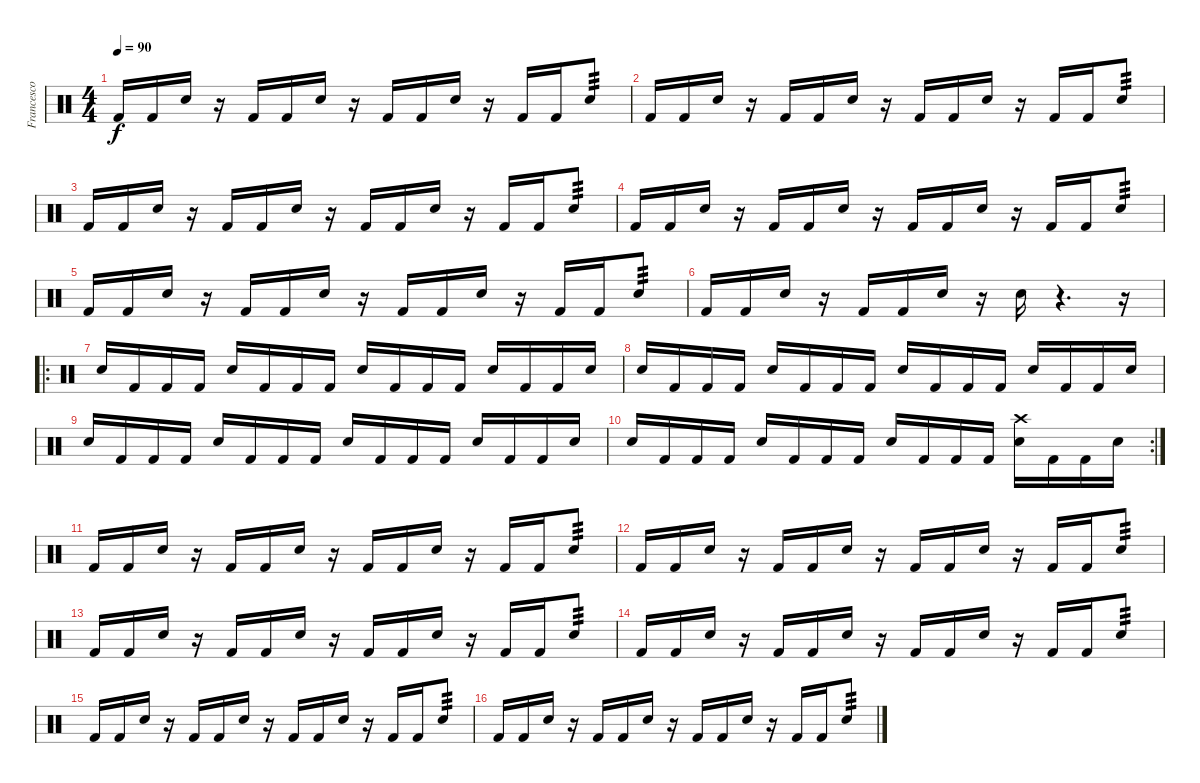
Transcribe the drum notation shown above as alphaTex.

\track ("Francesco -Franz- Valente" "Francesco ") {instrument percussion}
\staff {score}
\articulation defaults
\ts (4 4)
\tempo 90
\clef neutral
\ks c "Kick (hit) 2".16{dy f} "Kick (hit) 2".16 "Electric Snare (hit)".16
r.16 "Kick (hit) 2".16 "Kick (hit) 2".16 "Electric Snare (hit)".16 r.16 "Kick (hit) 2".16 "Kick (hit) 2".16 "Electric Snare (hit)".16 r.16 "Kick (hit) 2".16 "Kick (hit) 2".16 "Electric Snare (hit)".8{tp 3} |
"Kick (hit) 2".16 "Kick (hit) 2".16 "Electric Snare (hit)".16 r.16 "Kick (hit) 2".16 "Kick (hit) 2".16 "Electric Snare (hit)".16 r.16 "Kick (hit) 2".16 "Kick (hit) 2".16 "Electric Snare (hit)".16 r.16 "Kick (hit) 2".16 "Kick (hit) 2".16 "Electric Snare (hit)".8{tp 3} |
"Kick (hit) 2".16 "Kick (hit) 2".16 "Electric Snare (hit)".16 r.16 "Kick (hit) 2".16 "Kick (hit) 2".16 "Electric Snare (hit)".16 r.16 "Kick (hit) 2".16 "Kick (hit) 2".16 "Electric Snare (hit)".16 r.16 "Kick (hit) 2".16 "Kick (hit) 2".16 "Electric Snare (hit)".8{tp 3} |
"Kick (hit) 2".16 "Kick (hit) 2".16 "Electric Snare (hit)".16 r.16 "Kick (hit) 2".16 "Kick (hit) 2".16 "Electric Snare (hit)".16 r.16 "Kick (hit) 2".16 "Kick (hit) 2".16 "Electric Snare (hit)".16 r.16 "Kick (hit) 2".16 "Kick (hit) 2".16 "Electric Snare (hit)".8{tp 3} |
"Kick (hit) 2".16 "Kick (hit) 2".16 "Electric Snare (hit)".16 r.16 "Kick (hit) 2".16 "Kick (hit) 2".16 "Electric Snare (hit)".16 r.16 "Kick (hit) 2".16 "Kick (hit) 2".16 "Electric Snare (hit)".16 r.16 "Kick (hit) 2".16 "Kick (hit) 2".16 "Electric Snare (hit)".8{tp 3} |
"Kick (hit) 2".16 "Kick (hit) 2".16 "Electric Snare (hit)".16 r.16 "Kick (hit) 2".16 "Kick (hit) 2".16 "Electric Snare (hit)".16 r.16 "Electric Snare (hit)".16 r.4{d} r.16 |
\ro "Snare (hit) 2".16 "Kick (hit) 2".16 "Kick (hit) 2".16 "Kick (hit) 2".16 "Snare (hit) 2".16 "Kick (hit) 2".16 "Kick (hit) 2".16 "Kick (hit) 2".16 "Snare (hit) 2".16 "Kick (hit) 2".16 "Kick (hit) 2".16 "Kick (hit) 2".16 "Snare (hit) 2".16 "Kick (hit) 2".16 "Kick (hit) 2".16 "Snare (hit) 2".16
|
"Snare (hit) 2".16 "Kick (hit) 2".16 "Kick (hit) 2".16 "Kick (hit) 2".16 "Snare (hit) 2".16 "Kick (hit) 2".16 "Kick (hit) 2".16 "Kick (hit) 2".16 "Snare (hit) 2".16 "Kick (hit) 2".16 "Kick (hit) 2".16 "Kick (hit) 2".16 "Snare (hit) 2".16 "Kick (hit) 2".16 "Kick (hit) 2".16 "Snare (hit) 2".16 |
"Snare (hit) 2".16 "Kick (hit) 2".16 "Kick (hit) 2".16 "Kick (hit) 2".16 "Snare (hit) 2".16 "Kick (hit) 2".16 "Kick (hit) 2".16 "Kick (hit) 2".16 "Snare (hit) 2".16 "Kick (hit) 2".16 "Kick (hit) 2".16 "Kick (hit) 2".16 "Snare (hit) 2".16 "Kick (hit) 2".16 "Kick (hit) 2".16 "Snare (hit) 2".16 |
\rc 2 "Snare (hit) 2".16 "Kick (hit) 2".16 "Kick (hit) 2".16 "Kick (hit) 2".16 "Snare (hit) 2".16 "Kick (hit) 2".16 "Kick (hit) 2".16 "Kick (hit) 2".16 "Snare (hit) 2".16 "Kick (hit) 2".16 "Kick (hit) 2".16 "Kick (hit) 2".16
("Crash high (hit)" "Snare (hit) 2").16 "Kick (hit) 2".16 "Kick (hit) 2".16 "Snare (hit) 2".16 |
"Kick (hit) 2".16 "Kick (hit) 2".16 "Electric Snare (hit)".16 r.16 "Kick (hit) 2".16 "Kick (hit) 2".16 "Electric Snare (hit)".16 r.16 "Kick (hit) 2".16 "Kick (hit) 2".16 "Electric Snare (hit)".16 r.16 "Kick (hit) 2".16 "Kick (hit) 2".16 "Electric Snare (hit)".8{tp 3} |
"Kick (hit) 2".16 "Kick (hit) 2".16 "Electric Snare (hit)".16 r.16 "Kick (hit) 2".16 "Kick (hit) 2".16 "Electric Snare (hit)".16 r.16 "Kick (hit) 2".16 "Kick (hit) 2".16 "Electric Snare (hit)".16 r.16 "Kick (hit) 2".16 "Kick (hit) 2".16 "Electric Snare (hit)".8{tp 3} |
"Kick (hit) 2".16 "Kick (hit) 2".16 "Electric Snare (hit)".16 r.16 "Kick (hit) 2".16 "Kick (hit) 2".16 "Electric Snare (hit)".16 r.16 "Kick (hit) 2".16 "Kick (hit) 2".16 "Electric Snare (hit)".16 r.16 "Kick (hit) 2".16 "Kick (hit) 2".16 "Electric Snare (hit)".8{tp 3} |
"Kick (hit) 2".16 "Kick (hit) 2".16 "Electric Snare (hit)".16 r.16 "Kick (hit) 2".16 "Kick (hit) 2".16 "Electric Snare (hit)".16 r.16 "Kick (hit) 2".16 "Kick (hit) 2".16 "Electric Snare (hit)".16 r.16 "Kick (hit) 2".16 "Kick (hit) 2".16 "Electric Snare (hit)".8{tp 3} |
"Kick (hit) 2".16 "Kick (hit) 2".16 "Electric Snare (hit)".16 r.16 "Kick (hit) 2".16 "Kick (hit) 2".16 "Electric Snare (hit)".16 r.16 "Kick (hit) 2".16 "Kick (hit) 2".16 "Electric Snare (hit)".16 r.16 "Kick (hit) 2".16 "Kick (hit) 2".16 "Electric Snare (hit)".8{tp 3} |
"Kick (hit) 2".16 "Kick (hit) 2".16 "Electric Snare (hit)".16 r.16 "Kick (hit) 2".16 "Kick (hit) 2".16 "Electric Snare (hit)".16 r.16 "Kick (hit) 2".16 "Kick (hit) 2".16 "Electric Snare (hit)".16 r.16 "Kick (hit) 2".16 "Kick (hit) 2".16 "Electric Snare (hit)".8{tp 3}
